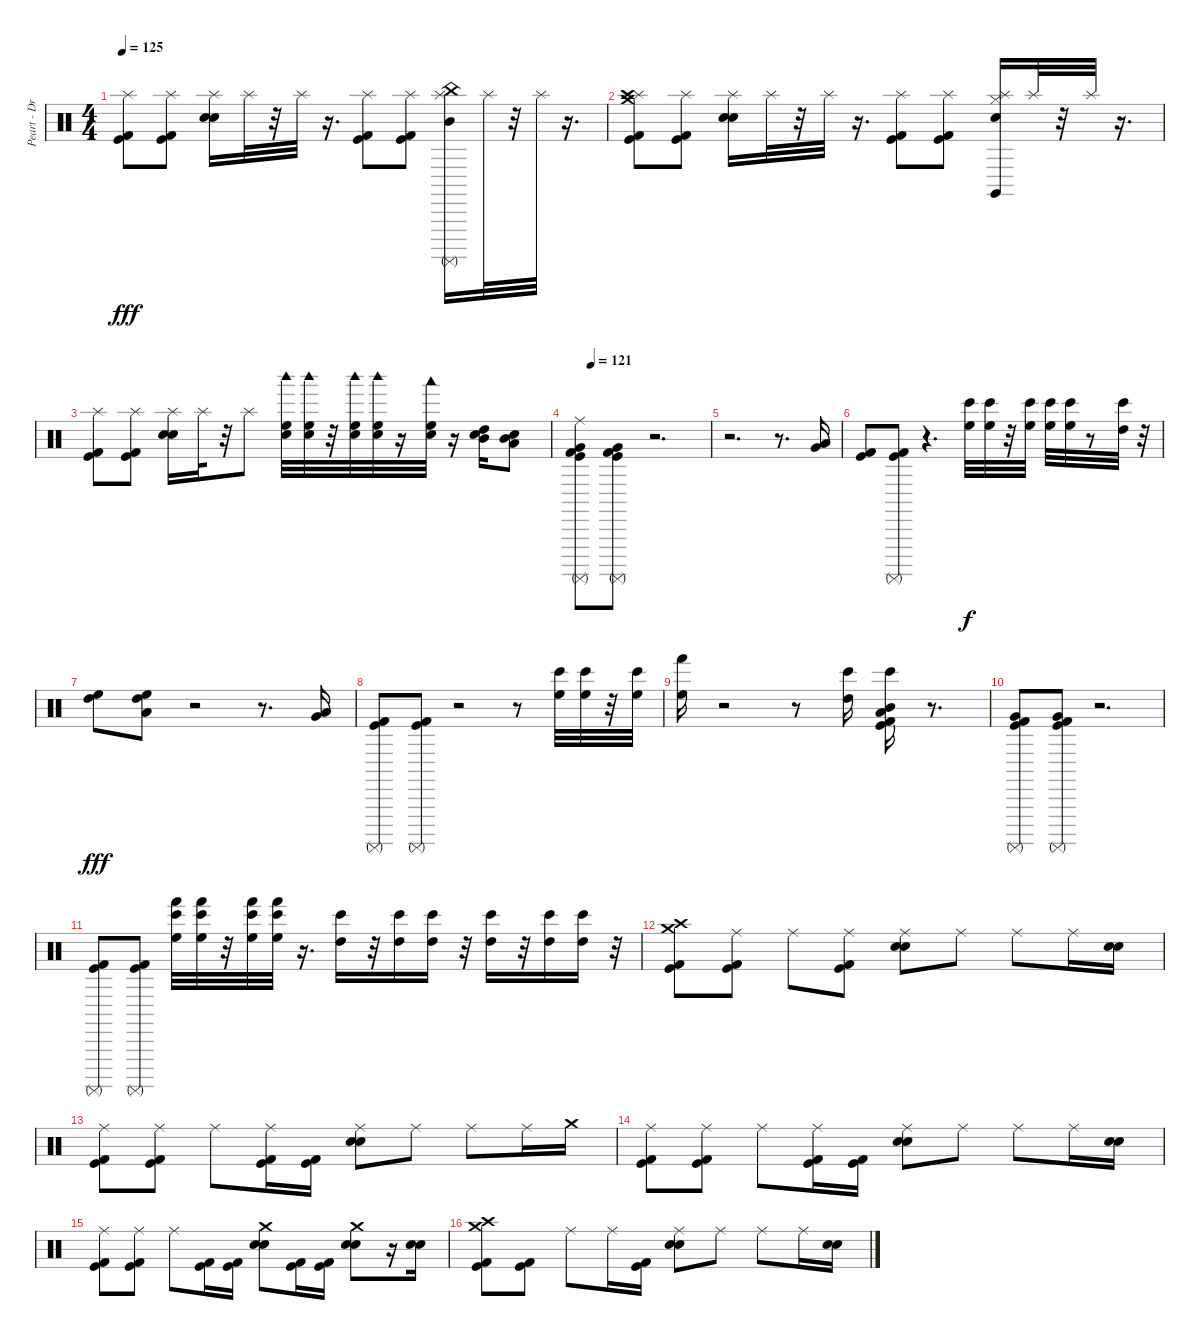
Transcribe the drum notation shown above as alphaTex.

\track ("Peart - Drums" "Peart - Dr") {instrument percussion}
\staff {score}
\articulation defaults
\ts (4 4)
\tempo 125
\clef neutral
\ks c
("Splash (hit)" "Kick (hit)" "Kick (hit) 2").8{dy fff} ("Splash (hit)" "Kick (hit) 2" "Kick (hit)").8 ("Splash (hit)" "Snare (hit) 2" "Electric Snare (hit)").16 "Splash (hit)".32 r.32 "Splash (hit)".32 r.16{d} ("Splash (hit)" "Kick (hit)" "Kick (hit) 2").8 ("Splash (hit)" "Kick (hit) 2" "Kick (hit)").8 ("Surdo (mute)" "Splash (hit)" "Mid Tom (hit)" "China (hit)").16 "Splash (hit)".32 r.32 "Splash (hit)".32 r.16{d} |
("Splash (hit)" "Kick (hit)" "Kick (hit) 2" "Crash medium (hit)" "Crash high (hit)").8 ("Kick (hit) 2" "Kick (hit)" "Splash (hit)").8 ("Splash (hit)" "Electric Snare (hit)" "Snare (hit) 2").16 "Splash (hit)".32 r.32 "Splash (hit)".32 r.16{d} ("Splash (hit)" "Kick (hit) 2" "Kick (hit)").8 ("Splash (hit)" "Kick (hit) 2" "Kick (hit)").8 ("Splash (hit)" "Electric Snare (hit)" "Hi-Hat (closed)" "Claves (hit)").16 "Splash (hit)".32 r.32 "Splash (hit)".32 r.16{d} |
("Splash (hit)" "Kick (hit)" "Kick (hit) 2").8 ("Splash (hit)" "Kick (hit) 2" "Kick (hit)").8 ("Splash (hit)" "Snare (hit) 2" "Electric Snare (hit)").16 "Splash (hit)".32 r.32 "Splash (hit)".8 ("Woodblock high (hit)" "High Floor Tom (hit)" "Electric Snare (hit)").32 ("Woodblock high (hit)" "High Floor Tom (hit)" "Electric Snare (hit)").32 r.32 ("Woodblock high (hit)" "High Floor Tom (hit)" "Electric Snare (hit)").32 ("Woodblock high (hit)" "High Floor Tom (hit)" "Electric Snare (hit)").32 r.16 ("Woodblock low (hit)" "High Floor Tom (hit)" "Electric Snare (hit)").32 r.16 ("High Tom (hit)" "Snare (hit) 2" "Mid Tom (hit)").16 ("Mid Tom (hit)" "Snare (hit) 2" "Low Tom (hit)").8 |
\tempo (121 0.125)
("Kick (hit) 2" "Kick (hit)" "Very Low Tom (hit)" "Surdo (mute)" "Ride (middle)").8 ("Kick (hit) 2" "Kick (hit)" "Very Low Tom (hit)" "Surdo (mute)").8 r.2{d} |
r.2{d} r.8{d} ("Very Low Tom (hit)" "Low Tom (hit)").16 |
("Kick (hit) 2" "Kick (hit)").8 ("Kick (hit) 2" "Kick (hit)" "Surdo (mute)").8 r.4{d} ("Bongo High (hit)" "High Floor Tom (hit)").32{dy f} ("Bongo High (hit)" "High Floor Tom (hit)").32 r.32 ("Bongo High (hit)" "High Floor Tom (hit)").32 ("Bongo High (hit)" "High Floor Tom (hit)").32 ("Bongo High (hit)" "High Floor Tom (hit)").32 r.8 ("Bongo High (hit)" "High Tom (hit)").32 r.32 |
("High Tom (hit)" "High Floor Tom (hit)").8{dy fff} ("High Tom (hit)" "Low Tom (hit)" "High Floor Tom (hit)").8 r.2 r.8{d} ("Low Tom (hit)" "Very Low Tom (hit)").16 |
("Kick (hit) 2" "Kick (hit)" "Surdo (mute)").8 ("Kick (hit) 2" "Kick (hit)" "Surdo (mute)").8 r.2 r.8 ("High Floor Tom (hit)" "Bongo High (hit)").32 ("High Floor Tom (hit)" "Bongo High (hit)").32 r.32 ("High Floor Tom (hit)" "Bongo High (hit)").32 |
("High Floor Tom (hit)" "Hand (hit)").16 r.2 r.8 ("Bongo High (hit)" "High Tom (hit)").16 ("Bongo High (hit)" "Kick (hit) 2" "Kick (hit)" "Low Tom (hit)" "Mid Tom (hit)").16 r.8{d} |
("Kick (hit) 2" "Kick (hit)" "Surdo (mute)" "Very Low Tom (hit)").8 ("Surdo (mute)" "Kick (hit) 2" "Kick (hit)" "Very Low Tom (hit)").8 r.2{d} |
("Kick (hit) 2" "Kick (hit)" "Surdo (mute)").8 ("Kick (hit) 2" "Kick (hit)" "Surdo (mute)").8 ("Bongo High (hit)" "Hand (hit)" "High Floor Tom (hit)").32 ("Bongo High (hit)" "Hand (hit)" "High Floor Tom (hit)").32 r.32 ("Bongo High (hit)" "Hand (hit)" "High Floor Tom (hit)").32 ("Bongo High (hit)" "Hand (hit)" "High Floor Tom (hit)").32 r.16{d} ("Bongo High (hit)" "High Tom (hit)").16 r.32 ("Bongo High (hit)" "High Tom (hit)").16 ("Bongo High (hit)" "High Tom (hit)").16 r.32 ("Bongo High (hit)" "High Tom (hit)").16 r.32 ("Bongo High (hit)" "High Tom (hit)").16 ("Bongo High (hit)" "High Tom (hit)").16 r.32 |
("Kick (hit) 2" "Kick (hit)" "Crash high (hit)" "Crash medium (hit)").8 ("Kick (hit) 2" "Kick (hit)" "Ride (middle)").8 "Ride (middle)".8 ("Kick (hit) 2" "Kick (hit)" "Ride (middle)").8 ("Snare (hit) 2" "Electric Snare (hit)" "Ride (middle)").8 "Ride (middle)".8 "Ride (middle)".8 "Ride (middle)".16 ("Snare (hit) 2" "Electric Snare (hit)").16 |
("Kick (hit) 2" "Kick (hit)" "Ride (middle)").8 ("Kick (hit) 2" "Kick (hit)" "Ride (middle)").8 "Ride (middle)".8 ("Kick (hit) 2" "Kick (hit)" "Ride (middle)").16 ("Kick (hit) 2" "Kick (hit)").16 ("Snare (hit) 2" "Electric Snare (hit)" "Ride (middle)").8 "Ride (middle)".8 "Ride (middle)".8 "Ride (middle)".16 "Crash medium (hit)".16 |
("Kick (hit) 2" "Kick (hit)" "Ride (middle)").8 ("Kick (hit)" "Kick (hit) 2" "Ride (middle)").8 "Ride (middle)".8 ("Kick (hit)" "Kick (hit) 2" "Ride (middle)").16 ("Kick (hit)" "Kick (hit) 2").16 ("Snare (hit) 2" "Electric Snare (hit)" "Ride (middle)").8 "Ride (middle)".8 "Ride (middle)".8 "Ride (middle)".16 ("Electric Snare (hit)" "Snare (hit) 2").16 |
("Kick (hit) 2" "Kick (hit)" "Ride (middle)").8 ("Kick (hit) 2" "Kick (hit)" "Ride (middle)").8 "Ride (middle)".8 ("Kick (hit)" "Kick (hit) 2").16 ("Kick (hit)" "Kick (hit) 2").16 ("Snare (hit) 2" "Electric Snare (hit)" "Crash medium (hit)").8 ("Kick (hit) 2" "Kick (hit)").16 ("Kick (hit) 2" "Kick (hit)").16 ("Electric Snare (hit)" "Snare (hit) 2" "Crash medium (hit)").8 r.16 ("Electric Snare (hit)" "Snare (hit) 2").16 |
("Crash medium (hit)" "Kick (hit) 2" "Kick (hit)" "Crash high (hit)").8 ("Kick (hit) 2" "Kick (hit)").8 "Ride (middle)".8 "Ride (middle)".16 ("Kick (hit) 2" "Kick (hit)").16 ("Electric Snare (hit)" "Snare (hit) 2" "Ride (middle)").8 "Ride (middle)".8 "Ride (middle)".8 "Ride (middle)".16 ("Electric Snare (hit)" "Snare (hit) 2").16
